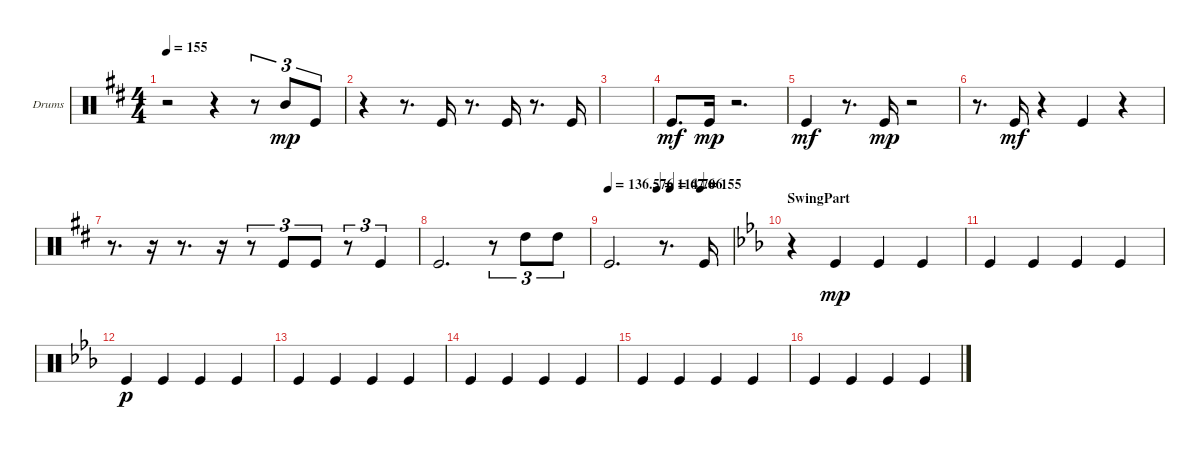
\bracketExtendMode groupsimilarinstruments
\firstSystemTrackNameOrientation horizontal
\otherSystemsTrackNameOrientation horizontal
\track ("Kick" "Drums") {instrument percussion}
\staff {score}
\articulation defaults
\ts (4 4)
\tempo 155
\clef neutral
\ks d
r.2{dy mf} r.4 r.8{tu (3 2)} "Mid Tom (hit)".8{tu (3 2) dy mp} "Kick (hit)".8{tu (3 2)} |
r.4 r.8{d} "Kick (hit)".16 r.8{d} "Kick (hit)".16 r.8{d} "Kick (hit)".16 |
|
"Kick (hit)".8{d dy mf} "Kick (hit)".16{dy mp} r.2{d} |
"Kick (hit)".4{dy mf} r.8{d} "Kick (hit)".16{dy mp} r.2 |
r.8{d} "Kick (hit)".16{dy mf} r.4 "Kick (hit)".4 r.4 |
r.8{d} r.16 r.8{d} r.16 r.8{tu (3 2)} "Kick (hit)".8{tu (3 2)} "Kick (hit)".8{tu (3 2)} r.8{tu (3 2)} "Kick (hit)".4{tu (3 2)} |
"Kick (hit)".2{d} r.8{tu (3 2)} "High Tom (hit)".8{tu (3 2)} "High Tom (hit)".8{tu (3 2)} |
\tempo
136.576
\tempo (114.706 0.39375)
\tempo (67.6 0.5)
\tempo (155 0.74375)
"Kick (hit)".2{d} r.8{d} "Kick (hit)".16 |
\section ("" "SwingPart")
\ks eb
r.4 "Kick (hit)".4{dy mp} "Kick (hit)".4 "Kick (hit)".4 |
"Kick (hit)".4 "Kick (hit)".4 "Kick (hit)".4 "Kick (hit)".4 |
"Kick (hit)".4{dy p} "Kick (hit)".4 "Kick (hit)".4 "Kick (hit)".4 |
"Kick (hit)".4 "Kick (hit)".4 "Kick (hit)".4 "Kick (hit)".4 |
"Kick (hit)".4 "Kick (hit)".4 "Kick (hit)".4 "Kick (hit)".4 |
"Kick (hit)".4 "Kick (hit)".4 "Kick (hit)".4 "Kick (hit)".4 |
"Kick (hit)".4 "Kick (hit)".4 "Kick (hit)".4 "Kick (hit)".4
